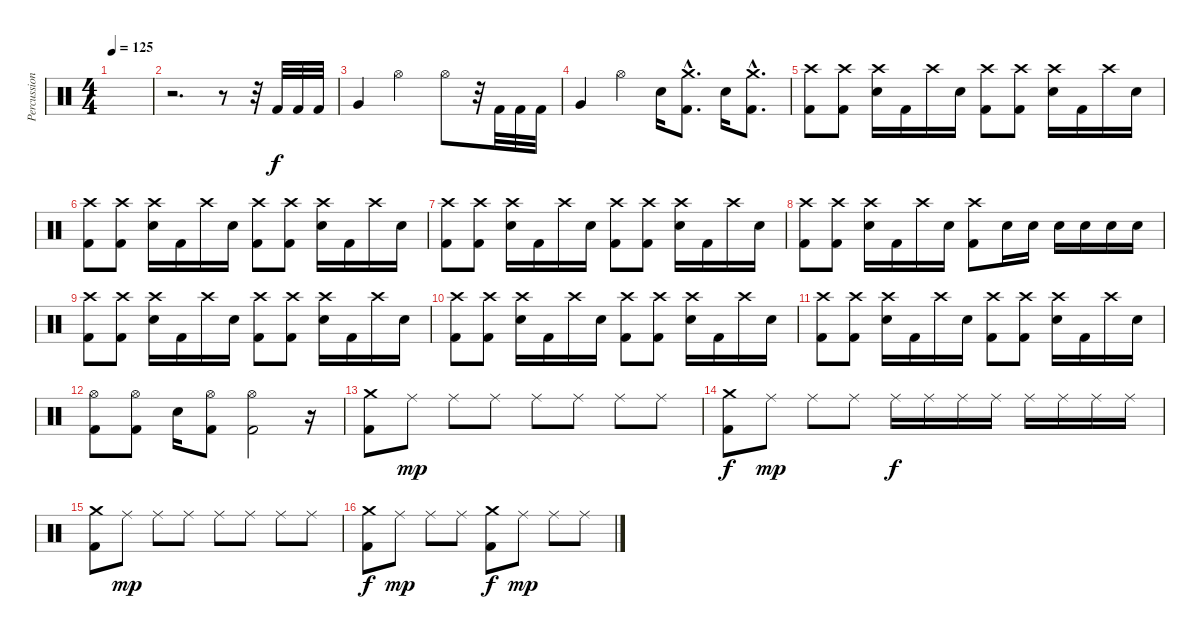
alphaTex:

\track ("Percussion" "Percussion") {instrument percussion}
\staff {score}
\articulation defaults
\ts (4 4)
\tempo 125
\clef neutral
\ks c
|
r.2{d} r.8 r.32 "Kick (hit) 2".32 "Kick (hit) 2".32 "Kick (hit) 2".32 |
"Very Low Tom (hit)".4 "Hi-Hat (open)".2 "Hi-Hat (open)".8 r.32 "Kick (hit) 2".32 "Kick (hit) 2".32 "Kick (hit) 2".32 |
"Very Low Tom (hit)".4 "Hi-Hat (open)".4 "Snare (hit) 2".16 ("Crash medium (hit)"{hac} "Kick (hit) 2"{hac}).8{d} "Snare (hit) 2".16 ("Crash medium (hit)"{hac} "Kick (hit) 2"{hac}).8{d} |
("Crash high (hit)" "Kick (hit) 2").8 ("Crash high (hit)" "Kick (hit) 2").8 ("Crash high (hit)" "Snare (hit) 2").16 "Kick (hit) 2".16 "Crash high (hit)".16 "Snare (hit) 2".16 ("Crash high (hit)" "Kick (hit) 2").8 ("Crash high (hit)" "Kick (hit) 2").8 ("Crash high (hit)" "Snare (hit) 2").16 "Kick (hit) 2".16 "Crash high (hit)".16 "Snare (hit) 2".16 |
("Crash high (hit)" "Kick (hit) 2").8 ("Crash high (hit)" "Kick (hit) 2").8 ("Crash high (hit)" "Snare (hit) 2").16 "Kick (hit) 2".16 "Crash high (hit)".16 "Snare (hit) 2".16 ("Crash high (hit)" "Kick (hit) 2").8 ("Crash high (hit)" "Kick (hit) 2").8 ("Crash high (hit)" "Snare (hit) 2").16 "Kick (hit) 2".16 "Crash high (hit)".16 "Snare (hit) 2".16 |
("Crash high (hit)" "Kick (hit) 2").8 ("Crash high (hit)" "Kick (hit) 2").8 ("Crash high (hit)" "Snare (hit) 2").16 "Kick (hit) 2".16 "Crash high (hit)".16 "Snare (hit) 2".16 ("Crash high (hit)" "Kick (hit) 2").8 ("Crash high (hit)" "Kick (hit) 2").8 ("Crash high (hit)" "Snare (hit) 2").16 "Kick (hit) 2".16 "Crash high (hit)".16 "Snare (hit) 2".16 |
("Crash high (hit)" "Kick (hit) 2").8 ("Crash high (hit)" "Kick (hit) 2").8 ("Crash high (hit)" "Snare (hit) 2").16 "Kick (hit) 2".16 "Crash high (hit)".16 "Snare (hit) 2".16 ("Crash high (hit)" "Kick (hit) 2").8 "Snare (hit) 2".16 "Snare (hit) 2".16 "Snare (hit) 2".16 "Snare (hit) 2".16 "Snare (hit) 2".16 "Snare (hit) 2".16 |
("Crash high (hit)" "Kick (hit) 2").8 ("Crash high (hit)" "Kick (hit) 2").8 ("Crash high (hit)" "Snare (hit) 2").16 "Kick (hit) 2".16 "Crash high (hit)".16 "Snare (hit) 2".16 ("Crash high (hit)" "Kick (hit) 2").8 ("Crash high (hit)" "Kick (hit) 2").8 ("Crash high (hit)" "Snare (hit) 2").16 "Kick (hit) 2".16 "Crash high (hit)".16 "Snare (hit) 2".16 |
("Crash high (hit)" "Kick (hit) 2").8 ("Crash high (hit)" "Kick (hit) 2").8 ("Crash high (hit)" "Snare (hit) 2").16 "Kick (hit) 2".16 "Crash high (hit)".16 "Snare (hit) 2".16 ("Crash high (hit)" "Kick (hit) 2").8 ("Crash high (hit)" "Kick (hit) 2").8 ("Crash high (hit)" "Snare (hit) 2").16 "Kick (hit) 2".16 "Crash high (hit)".16 "Snare (hit) 2".16 |
("Crash high (hit)" "Kick (hit) 2").8 ("Crash high (hit)" "Kick (hit) 2").8 ("Crash high (hit)" "Snare (hit) 2").16 "Kick (hit) 2".16 "Crash high (hit)".16 "Snare (hit) 2".16 ("Crash high (hit)" "Kick (hit) 2").8 ("Crash high (hit)" "Kick (hit) 2").8 ("Crash high (hit)" "Snare (hit) 2").16 "Kick (hit) 2".16 "Crash high (hit)".16 "Snare (hit) 2".16 |
("Hi-Hat (open)" "Kick (hit) 2").8 ("Hi-Hat (open)" "Kick (hit) 2").8 "Snare (hit) 2".16 ("Hi-Hat (open)" "Kick (hit) 2").8 ("Hi-Hat (open)" "Kick (hit) 2").2 r.16 |
("Crash medium (hit)" "Kick (hit) 2").8 "Ride (middle)".8{dy mp} "Ride (middle)".8 "Ride (middle)".8 "Ride (middle)".8 "Ride (middle)".8 "Ride (middle)".8 "Ride (middle)".8 |
("Crash medium (hit)" "Kick (hit) 2").8{dy f} "Ride (middle)".8{dy mp} "Ride (middle)".8 "Ride (middle)".8 "Ride (middle)".16{dy f} "Ride (middle)".16 "Ride (middle)".16 "Ride (middle)".16 "Ride (middle)".16 "Ride (middle)".16 "Ride (middle)".16 "Ride (middle)".16 |
("Crash medium (hit)" "Kick (hit) 2").8 "Ride (middle)".8{dy mp} "Ride (middle)".8 "Ride (middle)".8 "Ride (middle)".8 "Ride (middle)".8 "Ride (middle)".8 "Ride (middle)".8 |
("Crash medium (hit)" "Kick (hit) 2").8{dy f} "Ride (middle)".8{dy mp} "Ride (middle)".8 "Ride (middle)".8 ("Crash medium (hit)" "Kick (hit) 2").8{dy f} "Ride (middle)".8{dy mp} "Ride (middle)".8 "Ride (middle)".8
